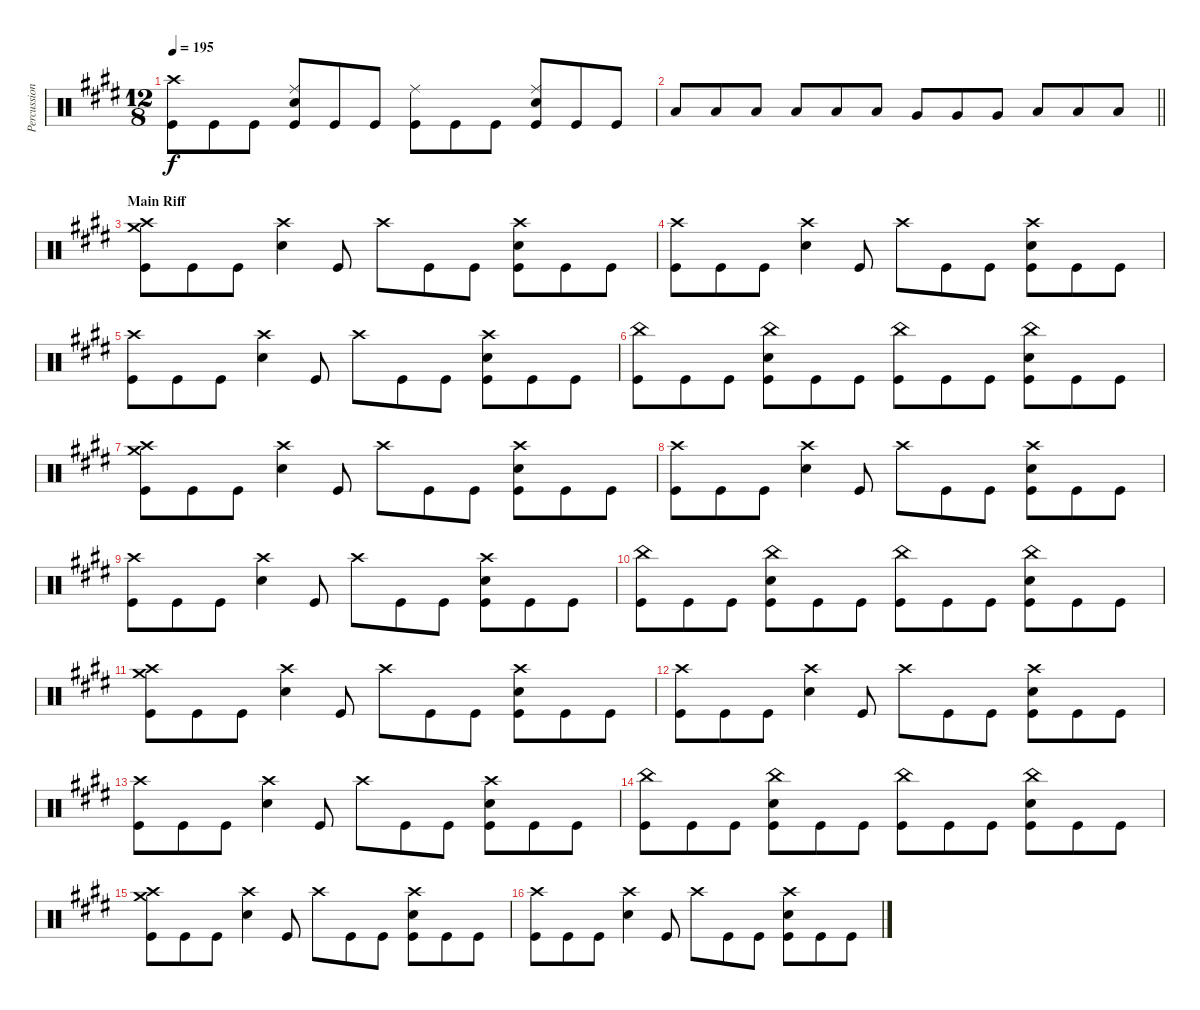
\track ("Percussion" "Percussion") {instrument percussion}
\staff {score}
\articulation defaults
\ts (12 8)
\tempo 195
\clef neutral
\ks e
("Crash high (hit)" "Kick (hit)").8{dy f} "Kick (hit)".8 "Kick (hit)".8 ("Ride (middle)" "Electric Snare (hit)" "Kick (hit)").8 "Kick (hit)".8 "Kick (hit)".8 ("Ride (middle)" "Kick (hit)").8 "Kick (hit)".8 "Kick (hit)".8 ("Ride (middle)" "Electric Snare (hit)" "Kick (hit)").8 "Kick (hit)".8 "Kick (hit)".8 |
\barLineRight lightlight "Low Tom (hit)".8 "Low Tom (hit)".8 "Low Tom (hit)".8 "Low Tom (hit)".8 "Low Tom (hit)".8 "Low Tom (hit)".8 "Very Low Tom (hit)".8 "Very Low Tom (hit)".8 "Very Low Tom (hit)".8 "Low Floor Tom (hit)".8 "Low Floor Tom (hit)".8 "Low Floor Tom (hit)".8
|
\section ("" "Main Riff")
("Crash high (hit)" "Crash medium (hit)" "Kick (hit)").8 "Kick (hit)".8 "Kick (hit)".8 ("Crash high (hit)" "Electric Snare (hit)").4 "Kick (hit)".8 "Crash high (hit)".8 "Kick (hit)".8 "Kick (hit)".8 ("Crash high (hit)" "Electric Snare (hit)" "Kick (hit)").8 "Kick (hit)".8 "Kick (hit)".8 |
("Crash high (hit)" "Kick (hit)").8 "Kick (hit)".8 "Kick (hit)".8 ("Crash high (hit)" "Electric Snare (hit)").4 "Kick (hit)".8 "Crash high (hit)".8 "Kick (hit)".8 "Kick (hit)".8 ("Crash high (hit)" "Electric Snare (hit)" "Kick (hit)").8 "Kick (hit)".8 "Kick (hit)".8 |
("Crash high (hit)" "Kick (hit)").8 "Kick (hit)".8 "Kick (hit)".8 ("Crash high (hit)" "Electric Snare (hit)").4 "Kick (hit)".8 "Crash high (hit)".8 "Kick (hit)".8 "Kick (hit)".8 ("Crash high (hit)" "Electric Snare (hit)" "Kick (hit)").8 "Kick (hit)".8 "Kick (hit)".8 |
("China (hit)" "Kick (hit)").8 "Kick (hit)".8 "Kick (hit)".8 ("China (hit)" "Electric Snare (hit)" "Kick (hit)").8 "Kick (hit)".8 "Kick (hit)".8 ("China (hit)" "Kick (hit)").8 "Kick (hit)".8 "Kick (hit)".8 ("China (hit)" "Electric Snare (hit)" "Kick (hit)").8 "Kick (hit)".8 "Kick (hit)".8 |
("Crash high (hit)" "Crash medium (hit)" "Kick (hit)").8 "Kick (hit)".8 "Kick (hit)".8 ("Crash high (hit)" "Electric Snare (hit)").4 "Kick (hit)".8 "Crash high (hit)".8 "Kick (hit)".8 "Kick (hit)".8 ("Crash high (hit)" "Electric Snare (hit)" "Kick (hit)").8 "Kick (hit)".8 "Kick (hit)".8 |
("Crash high (hit)" "Kick (hit)").8 "Kick (hit)".8 "Kick (hit)".8 ("Crash high (hit)" "Electric Snare (hit)").4 "Kick (hit)".8 "Crash high (hit)".8 "Kick (hit)".8 "Kick (hit)".8 ("Crash high (hit)" "Electric Snare (hit)" "Kick (hit)").8 "Kick (hit)".8 "Kick (hit)".8 |
("Crash high (hit)" "Kick (hit)").8 "Kick (hit)".8 "Kick (hit)".8 ("Crash high (hit)" "Electric Snare (hit)").4 "Kick (hit)".8 "Crash high (hit)".8 "Kick (hit)".8 "Kick (hit)".8 ("Crash high (hit)" "Electric Snare (hit)" "Kick (hit)").8 "Kick (hit)".8 "Kick (hit)".8 |
("China (hit)" "Kick (hit)").8 "Kick (hit)".8 "Kick (hit)".8 ("China (hit)" "Electric Snare (hit)" "Kick (hit)").8 "Kick (hit)".8 "Kick (hit)".8 ("China (hit)" "Kick (hit)").8 "Kick (hit)".8 "Kick (hit)".8 ("China (hit)" "Electric Snare (hit)" "Kick (hit)").8 "Kick (hit)".8 "Kick (hit)".8 |
("Crash high (hit)" "Crash medium (hit)" "Kick (hit)").8 "Kick (hit)".8 "Kick (hit)".8 ("Crash high (hit)" "Electric Snare (hit)").4 "Kick (hit)".8 "Crash high (hit)".8 "Kick (hit)".8 "Kick (hit)".8 ("Crash high (hit)" "Electric Snare (hit)" "Kick (hit)").8 "Kick (hit)".8 "Kick (hit)".8 |
("Crash high (hit)" "Kick (hit)").8 "Kick (hit)".8 "Kick (hit)".8 ("Crash high (hit)" "Electric Snare (hit)").4 "Kick (hit)".8 "Crash high (hit)".8 "Kick (hit)".8 "Kick (hit)".8 ("Crash high (hit)" "Electric Snare (hit)" "Kick (hit)").8 "Kick (hit)".8 "Kick (hit)".8 |
("Crash high (hit)" "Kick (hit)").8 "Kick (hit)".8 "Kick (hit)".8 ("Crash high (hit)" "Electric Snare (hit)").4 "Kick (hit)".8 "Crash high (hit)".8 "Kick (hit)".8 "Kick (hit)".8 ("Crash high (hit)" "Electric Snare (hit)" "Kick (hit)").8 "Kick (hit)".8 "Kick (hit)".8 |
("China (hit)" "Kick (hit)").8 "Kick (hit)".8 "Kick (hit)".8 ("China (hit)" "Electric Snare (hit)" "Kick (hit)").8 "Kick (hit)".8 "Kick (hit)".8 ("China (hit)" "Kick (hit)").8 "Kick (hit)".8 "Kick (hit)".8 ("China (hit)" "Electric Snare (hit)" "Kick (hit)").8 "Kick (hit)".8 "Kick (hit)".8 |
("Crash high (hit)" "Crash medium (hit)" "Kick (hit)").8 "Kick (hit)".8 "Kick (hit)".8 ("Crash high (hit)" "Electric Snare (hit)").4 "Kick (hit)".8 "Crash high (hit)".8 "Kick (hit)".8 "Kick (hit)".8 ("Crash high (hit)" "Electric Snare (hit)" "Kick (hit)").8 "Kick (hit)".8 "Kick (hit)".8 |
("Crash high (hit)" "Kick (hit)").8 "Kick (hit)".8 "Kick (hit)".8 ("Crash high (hit)" "Electric Snare (hit)").4 "Kick (hit)".8 "Crash high (hit)".8 "Kick (hit)".8 "Kick (hit)".8 ("Crash high (hit)" "Electric Snare (hit)" "Kick (hit)").8 "Kick (hit)".8 "Kick (hit)".8
